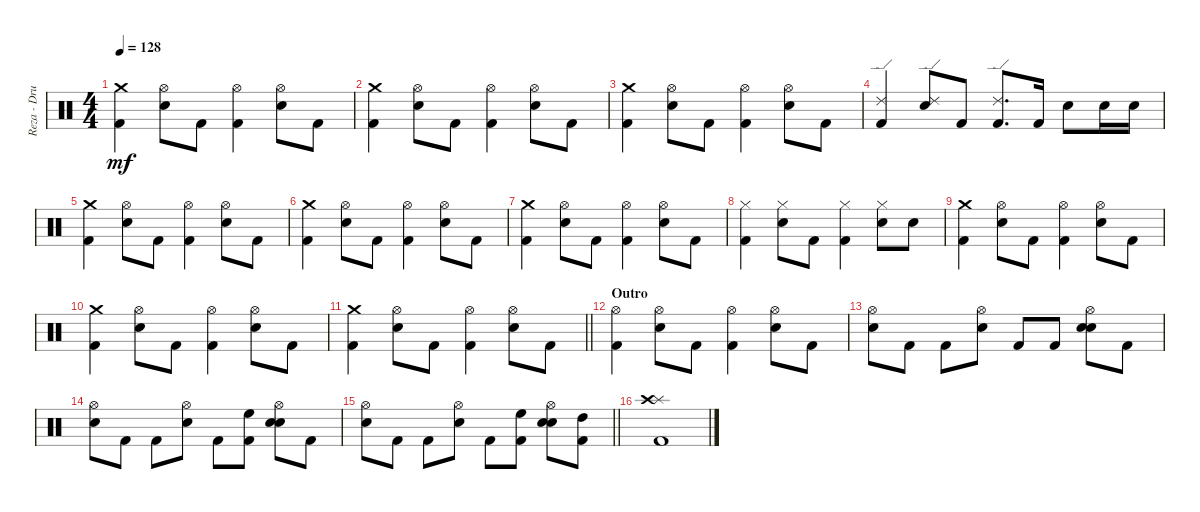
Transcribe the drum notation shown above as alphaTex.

\track ("Reza - Drum" "Reza - Dru") {instrument percussion}
\staff {score}
\articulation defaults
\ts (4 4)
\tempo 128
\clef neutral
\ks c
("Crash medium (hit)" "Kick (hit) 2").4{dy mf} ("Hi-Hat (open)" "Electric Snare (hit)").8 "Kick (hit) 2".8 ("Hi-Hat (open)" "Kick (hit) 2").4 ("Hi-Hat (open)" "Electric Snare (hit)").8 "Kick (hit) 2".8 |
("Crash medium (hit)" "Kick (hit) 2").4 ("Hi-Hat (open)" "Electric Snare (hit)").8 "Kick (hit) 2".8 ("Hi-Hat (open)" "Kick (hit) 2").4 ("Hi-Hat (open)" "Electric Snare (hit)").8 "Kick (hit) 2".8 |
("Crash medium (hit)" "Kick (hit) 2").4 ("Hi-Hat (open)" "Electric Snare (hit)").8 "Kick (hit) 2".8 ("Hi-Hat (open)" "Kick (hit) 2").4 ("Hi-Hat (open)" "Electric Snare (hit)").8 "Kick (hit) 2".8 |
("Ride (edge) 2" "Kick (hit) 2").4 ("Ride (edge) 2" "Electric Snare (hit)").8 "Kick (hit) 2".8 ("Ride (edge) 2" "Kick (hit) 2").8{d} "Kick (hit) 2".16 "Electric Snare (hit)".8 "Electric Snare (hit)".16 "Electric Snare (hit)".16 |
("Crash medium (hit)" "Kick (hit) 2").4 ("Hi-Hat (open)" "Electric Snare (hit)").8 "Kick (hit) 2".8 ("Hi-Hat (open)" "Kick (hit) 2").4 ("Hi-Hat (open)" "Electric Snare (hit)").8 "Kick (hit) 2".8 |
("Crash medium (hit)" "Kick (hit) 2").4 ("Hi-Hat (open)" "Electric Snare (hit)").8 "Kick (hit) 2".8 ("Hi-Hat (open)" "Kick (hit) 2").4 ("Hi-Hat (open)" "Electric Snare (hit)").8 "Kick (hit) 2".8 |
("Crash medium (hit)" "Kick (hit) 2").4 ("Hi-Hat (open)" "Electric Snare (hit)").8 "Kick (hit) 2".8 ("Hi-Hat (open)" "Kick (hit) 2").4 ("Hi-Hat (open)" "Electric Snare (hit)").8 "Kick (hit) 2".8 |
("Hi-Hat (closed)" "Kick (hit) 2").4 ("Hi-Hat (closed)" "Electric Snare (hit)").8 "Kick (hit) 2".8 ("Hi-Hat (closed)" "Kick (hit) 2").4 ("Hi-Hat (closed)" "Electric Snare (hit)").8 "Electric Snare (hit)".8 |
("Crash medium (hit)" "Kick (hit) 2").4 ("Hi-Hat (open)" "Electric Snare (hit)").8 "Kick (hit) 2".8 ("Hi-Hat (open)" "Kick (hit) 2").4 ("Hi-Hat (open)" "Electric Snare (hit)").8 "Kick (hit) 2".8 |
("Crash medium (hit)" "Kick (hit) 2").4 ("Hi-Hat (open)" "Electric Snare (hit)").8 "Kick (hit) 2".8 ("Hi-Hat (open)" "Kick (hit) 2").4 ("Hi-Hat (open)" "Electric Snare (hit)").8 "Kick (hit) 2".8 |
\barLineRight lightlight
("Crash medium (hit)" "Kick (hit) 2").4 ("Hi-Hat (open)" "Electric Snare (hit)").8 "Kick (hit) 2".8 ("Hi-Hat (open)" "Kick (hit) 2").4 ("Hi-Hat (open)" "Electric Snare (hit)").8 "Kick (hit) 2".8 |
\section ("" "Outro")
("Hi-Hat (open)" "Kick (hit) 2").4 ("Hi-Hat (open)" "Electric Snare (hit)").8 "Kick (hit) 2".8 ("Hi-Hat (open)" "Kick (hit) 2").4 ("Hi-Hat (open)" "Electric Snare (hit)").8 "Kick (hit) 2".8 |
("Hi-Hat (open)" "Electric Snare (hit)").8 "Kick (hit) 2".8 "Kick (hit) 2".8 ("Hi-Hat (open)" "Electric Snare (hit)").8 "Kick (hit) 2".8 "Kick (hit) 2".8 ("Hi-Hat (open)" "Snare (hit) 2" "Electric Snare (hit)").8 "Kick (hit) 2".8 |
("Hi-Hat (open)" "Electric Snare (hit)").8 "Kick (hit) 2".8 "Kick (hit) 2".8 ("Hi-Hat (open)" "Electric Snare (hit)").8 "Kick (hit) 2".8 ("High Floor Tom (hit)" "Kick (hit) 2").8 ("Hi-Hat (open)" "Snare (hit) 2" "Electric Snare (hit)").8 "Kick (hit) 2".8 |
\barLineRight lightlight
("Hi-Hat (open)" "Electric Snare (hit)").8 "Kick (hit) 2".8 "Kick (hit) 2".8 ("Hi-Hat (open)" "Electric Snare (hit)").8 "Kick (hit) 2".8 ("High Floor Tom (hit)" "Kick (hit) 2").8 ("Hi-Hat (open)" "Snare (hit) 2" "Electric Snare (hit)").8 ("High Tom (hit)" "Kick (hit) 2").8 |
("Splash (hit)" "Crash high (hit)" "Kick (hit) 2").1
